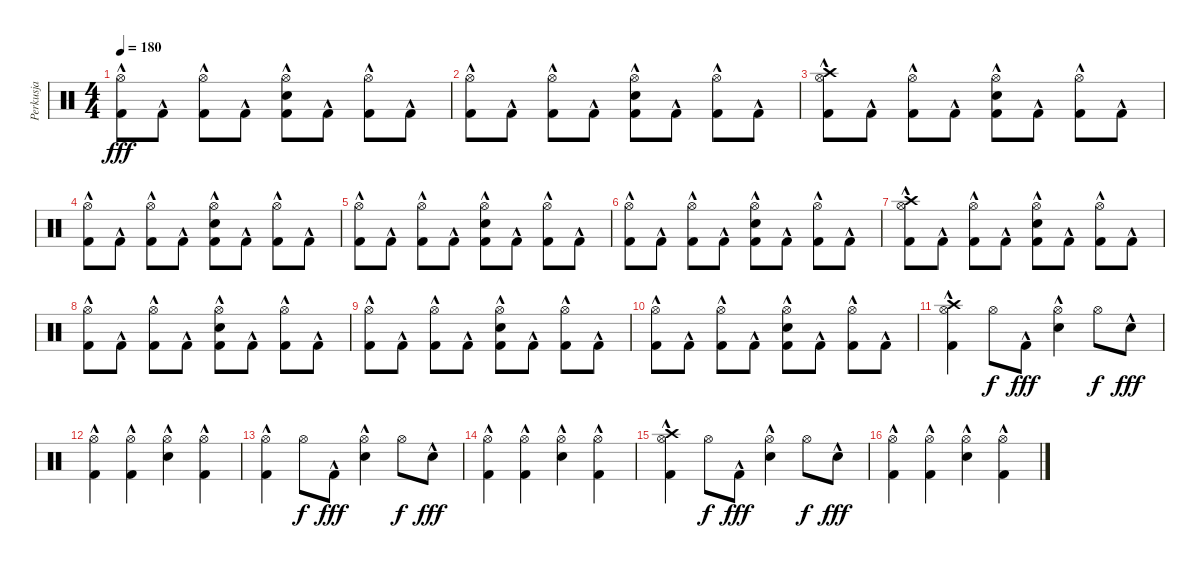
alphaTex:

\track ("Perkusja" "Perkusja") {instrument percussion}
\staff {score}
\articulation defaults
\ts (4 4)
\tempo 180
\clef neutral
\ks c
("Hi-Hat (open)" "Kick (hit) 2"{hac}).8{dy fff} "Kick (hit) 2"{hac}.8 ("Hi-Hat (open)" "Kick (hit) 2"{hac}).8 "Kick (hit) 2"{hac}.8 ("Hi-Hat (open)" "Electric Snare (hit)"{hac} "Kick (hit) 2"{hac}).8 "Kick (hit) 2"{hac}.8 ("Hi-Hat (open)" "Kick (hit) 2"{hac}).8 "Kick (hit) 2"{hac}.8 |
("Hi-Hat (open)" "Kick (hit) 2"{hac}).8 "Kick (hit) 2"{hac}.8 ("Hi-Hat (open)" "Kick (hit) 2"{hac}).8 "Kick (hit) 2"{hac}.8 ("Hi-Hat (open)" "Electric Snare (hit)"{hac} "Kick (hit) 2"{hac}).8 "Kick (hit) 2"{hac}.8 ("Hi-Hat (open)" "Kick (hit) 2"{hac}).8 "Kick (hit) 2"{hac}.8 |
("Crash high (hit)" "Hi-Hat (open)" "Kick (hit) 2"{hac}).8 "Kick (hit) 2"{hac}.8 ("Hi-Hat (open)" "Kick (hit) 2"{hac}).8 "Kick (hit) 2"{hac}.8 ("Hi-Hat (open)" "Electric Snare (hit)"{hac} "Kick (hit) 2"{hac}).8 "Kick (hit) 2"{hac}.8 ("Hi-Hat (open)" "Kick (hit) 2"{hac}).8 "Kick (hit) 2"{hac}.8 |
("Hi-Hat (open)" "Kick (hit) 2"{hac}).8 "Kick (hit) 2"{hac}.8 ("Hi-Hat (open)" "Kick (hit) 2"{hac}).8 "Kick (hit) 2"{hac}.8 ("Hi-Hat (open)" "Electric Snare (hit)"{hac} "Kick (hit) 2"{hac}).8 "Kick (hit) 2"{hac}.8 ("Hi-Hat (open)" "Kick (hit) 2"{hac}).8 "Kick (hit) 2"{hac}.8 |
("Hi-Hat (open)" "Kick (hit) 2"{hac}).8 "Kick (hit) 2"{hac}.8 ("Hi-Hat (open)" "Kick (hit) 2"{hac}).8 "Kick (hit) 2"{hac}.8 ("Hi-Hat (open)" "Electric Snare (hit)"{hac} "Kick (hit) 2"{hac}).8 "Kick (hit) 2"{hac}.8 ("Hi-Hat (open)" "Kick (hit) 2"{hac}).8 "Kick (hit) 2"{hac}.8 |
("Hi-Hat (open)" "Kick (hit) 2"{hac}).8 "Kick (hit) 2"{hac}.8 ("Hi-Hat (open)" "Kick (hit) 2"{hac}).8 "Kick (hit) 2"{hac}.8 ("Hi-Hat (open)" "Electric Snare (hit)"{hac} "Kick (hit) 2"{hac}).8 "Kick (hit) 2"{hac}.8 ("Hi-Hat (open)" "Kick (hit) 2"{hac}).8 "Kick (hit) 2"{hac}.8 |
("Crash high (hit)" "Hi-Hat (open)" "Kick (hit) 2"{hac}).8 "Kick (hit) 2"{hac}.8 ("Hi-Hat (open)" "Kick (hit) 2"{hac}).8 "Kick (hit) 2"{hac}.8 ("Hi-Hat (open)" "Electric Snare (hit)"{hac} "Kick (hit) 2"{hac}).8 "Kick (hit) 2"{hac}.8 ("Hi-Hat (open)" "Kick (hit) 2"{hac}).8 "Kick (hit) 2"{hac}.8 |
("Hi-Hat (open)" "Kick (hit) 2"{hac}).8 "Kick (hit) 2"{hac}.8 ("Hi-Hat (open)" "Kick (hit) 2"{hac}).8 "Kick (hit) 2"{hac}.8 ("Hi-Hat (open)" "Electric Snare (hit)"{hac} "Kick (hit) 2"{hac}).8 "Kick (hit) 2"{hac}.8 ("Hi-Hat (open)" "Kick (hit) 2"{hac}).8 "Kick (hit) 2"{hac}.8 |
("Hi-Hat (open)" "Kick (hit) 2"{hac}).8 "Kick (hit) 2"{hac}.8 ("Hi-Hat (open)" "Kick (hit) 2"{hac}).8 "Kick (hit) 2"{hac}.8 ("Hi-Hat (open)" "Electric Snare (hit)"{hac} "Kick (hit) 2"{hac}).8 "Kick (hit) 2"{hac}.8 ("Hi-Hat (open)" "Kick (hit) 2"{hac}).8 "Kick (hit) 2"{hac}.8 |
("Hi-Hat (open)" "Kick (hit) 2"{hac}).8 "Kick (hit) 2"{hac}.8 ("Hi-Hat (open)" "Kick (hit) 2"{hac}).8 "Kick (hit) 2"{hac}.8 ("Hi-Hat (open)" "Electric Snare (hit)"{hac} "Kick (hit) 2"{hac}).8 "Kick (hit) 2"{hac}.8 ("Hi-Hat (open)" "Kick (hit) 2"{hac}).8 "Kick (hit) 2"{hac}.8 |
("Crash high (hit)" "Hi-Hat (open)" "Kick (hit) 2"{hac}).4 "Hi-Hat (open)".8{dy f} "Kick (hit) 2"{hac}.8{dy fff} ("Hi-Hat (open)" "Electric Snare (hit)"{hac}).4 "Hi-Hat (open)".8{dy f} "Electric Snare (hit)"{hac}.8{dy fff} |
("Hi-Hat (open)" "Kick (hit) 2"{hac}).4 ("Hi-Hat (open)" "Kick (hit) 2"{hac}).4 ("Hi-Hat (open)" "Electric Snare (hit)"{hac}).4 ("Hi-Hat (open)" "Kick (hit) 2"{hac}).4 |
("Hi-Hat (open)" "Kick (hit) 2"{hac}).4 "Hi-Hat (open)".8{dy f} "Kick (hit) 2"{hac}.8{dy fff} ("Hi-Hat (open)" "Electric Snare (hit)"{hac}).4 "Hi-Hat (open)".8{dy f} "Electric Snare (hit)"{hac}.8{dy fff} |
("Hi-Hat (open)" "Kick (hit) 2"{hac}).4 ("Hi-Hat (open)" "Kick (hit) 2"{hac}).4 ("Hi-Hat (open)" "Electric Snare (hit)"{hac}).4 ("Hi-Hat (open)" "Kick (hit) 2"{hac}).4 |
("Crash high (hit)" "Hi-Hat (open)" "Kick (hit) 2"{hac}).4 "Hi-Hat (open)".8{dy f} "Kick (hit) 2"{hac}.8{dy fff} ("Hi-Hat (open)" "Electric Snare (hit)"{hac}).4 "Hi-Hat (open)".8{dy f} "Electric Snare (hit)"{hac}.8{dy fff} |
("Hi-Hat (open)" "Kick (hit) 2"{hac}).4 ("Hi-Hat (open)" "Kick (hit) 2"{hac}).4 ("Hi-Hat (open)" "Electric Snare (hit)"{hac}).4 ("Hi-Hat (open)" "Kick (hit) 2"{hac}).4
